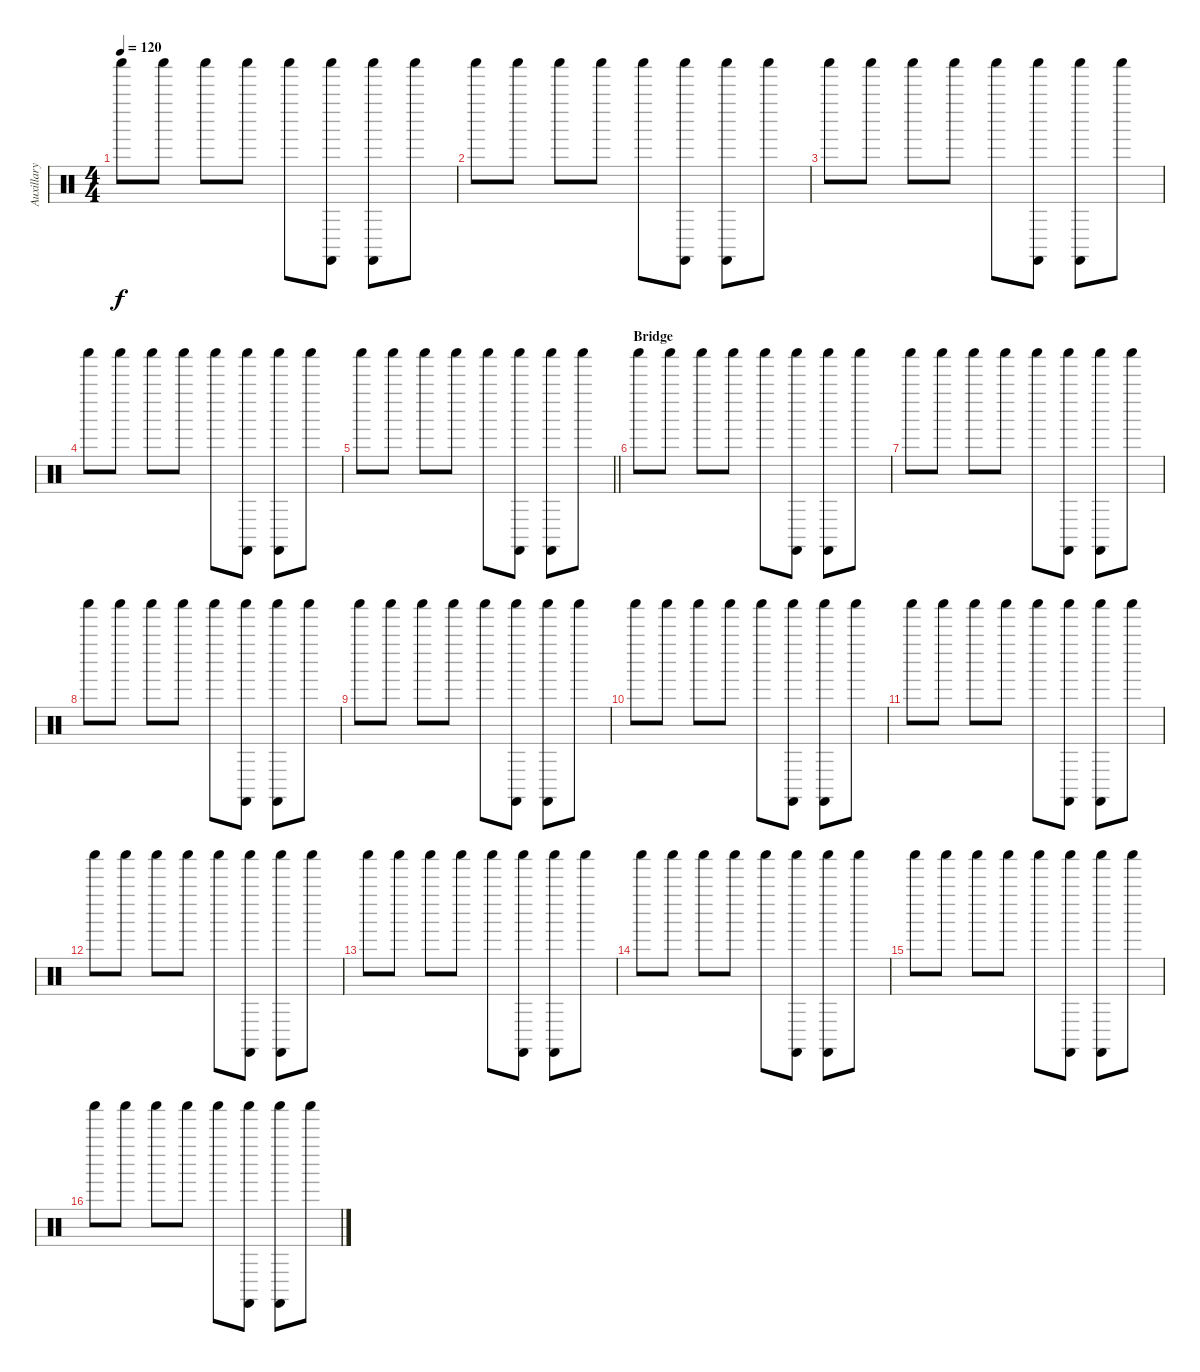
\track ("Auxillary" "Auxillary") {instrument percussion}
\staff {score}
\articulation defaults
\ts (4 4)
\tempo 120
\clef neutral
\ks c "Shaker (hit)".8{dy f} "Shaker (hit)".8 "Shaker (hit)".8 "Shaker (hit)".8 "Shaker (hit)".8
("Shaker (hit)" "Castanets (hit)").8 ("Shaker (hit)" "Castanets (hit)").8 "Shaker (hit)".8 |
"Shaker (hit)".8 "Shaker (hit)".8 "Shaker (hit)".8 "Shaker (hit)".8 "Shaker (hit)".8 ("Shaker (hit)" "Castanets (hit)").8 ("Shaker (hit)" "Castanets (hit)").8 "Shaker (hit)".8 |
"Shaker (hit)".8 "Shaker (hit)".8 "Shaker (hit)".8 "Shaker (hit)".8 "Shaker (hit)".8 ("Shaker (hit)" "Castanets (hit)").8 ("Shaker (hit)" "Castanets (hit)").8 "Shaker (hit)".8 |
"Shaker (hit)".8 "Shaker (hit)".8 "Shaker (hit)".8 "Shaker (hit)".8 "Shaker (hit)".8 ("Shaker (hit)" "Castanets (hit)").8 ("Shaker (hit)" "Castanets (hit)").8 "Shaker (hit)".8 |
\barLineRight lightlight "Shaker (hit)".8 "Shaker (hit)".8 "Shaker (hit)".8 "Shaker (hit)".8 "Shaker (hit)".8
("Shaker (hit)" "Castanets (hit)").8 ("Shaker (hit)" "Castanets (hit)").8 "Shaker (hit)".8 |
\section ("" "Bridge")
"Shaker (hit)".8 "Shaker (hit)".8 "Shaker (hit)".8 "Shaker (hit)".8 "Shaker (hit)".8 ("Shaker (hit)" "Castanets (hit)").8 ("Shaker (hit)" "Castanets (hit)").8 "Shaker (hit)".8 |
"Shaker (hit)".8 "Shaker (hit)".8 "Shaker (hit)".8 "Shaker (hit)".8 "Shaker (hit)".8 ("Shaker (hit)" "Castanets (hit)").8 ("Shaker (hit)" "Castanets (hit)").8 "Shaker (hit)".8 |
"Shaker (hit)".8 "Shaker (hit)".8 "Shaker (hit)".8 "Shaker (hit)".8 "Shaker (hit)".8 ("Shaker (hit)" "Castanets (hit)").8 ("Shaker (hit)" "Castanets (hit)").8 "Shaker (hit)".8 |
"Shaker (hit)".8 "Shaker (hit)".8 "Shaker (hit)".8 "Shaker (hit)".8 "Shaker (hit)".8 ("Shaker (hit)" "Castanets (hit)").8 ("Shaker (hit)" "Castanets (hit)").8 "Shaker (hit)".8 |
"Shaker (hit)".8 "Shaker (hit)".8 "Shaker (hit)".8 "Shaker (hit)".8 "Shaker (hit)".8 ("Shaker (hit)" "Castanets (hit)").8 ("Shaker (hit)" "Castanets (hit)").8 "Shaker (hit)".8 |
"Shaker (hit)".8 "Shaker (hit)".8 "Shaker (hit)".8 "Shaker (hit)".8 "Shaker (hit)".8 ("Shaker (hit)" "Castanets (hit)").8 ("Shaker (hit)" "Castanets (hit)").8 "Shaker (hit)".8 |
"Shaker (hit)".8 "Shaker (hit)".8 "Shaker (hit)".8 "Shaker (hit)".8 "Shaker (hit)".8 ("Shaker (hit)" "Castanets (hit)").8 ("Shaker (hit)" "Castanets (hit)").8 "Shaker (hit)".8 |
"Shaker (hit)".8 "Shaker (hit)".8 "Shaker (hit)".8 "Shaker (hit)".8 "Shaker (hit)".8 ("Shaker (hit)" "Castanets (hit)").8 ("Shaker (hit)" "Castanets (hit)").8 "Shaker (hit)".8 |
"Shaker (hit)".8 "Shaker (hit)".8 "Shaker (hit)".8 "Shaker (hit)".8 "Shaker (hit)".8 ("Shaker (hit)" "Castanets (hit)").8 ("Shaker (hit)" "Castanets (hit)").8 "Shaker (hit)".8 |
"Shaker (hit)".8 "Shaker (hit)".8 "Shaker (hit)".8 "Shaker (hit)".8 "Shaker (hit)".8 ("Shaker (hit)" "Castanets (hit)").8 ("Shaker (hit)" "Castanets (hit)").8 "Shaker (hit)".8 |
"Shaker (hit)".8 "Shaker (hit)".8 "Shaker (hit)".8 "Shaker (hit)".8 "Shaker (hit)".8 ("Shaker (hit)" "Castanets (hit)").8 ("Shaker (hit)" "Castanets (hit)").8 "Shaker (hit)".8
